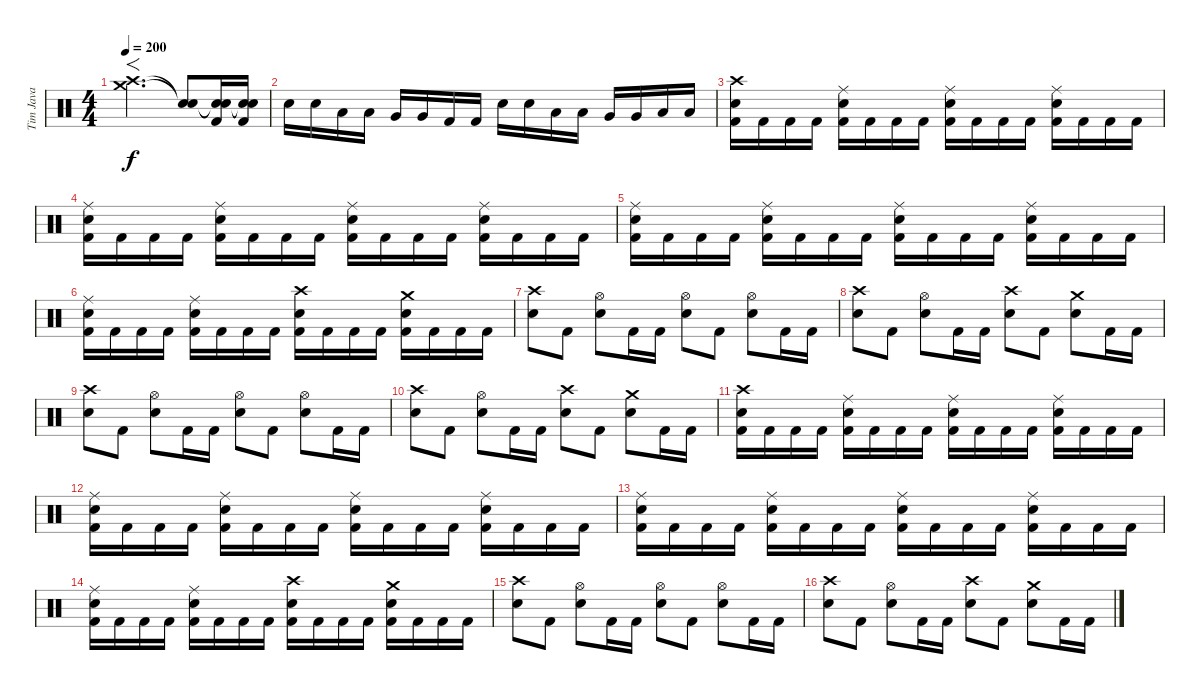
\track ("Tim Java" "Tim Java") {instrument percussion}
\staff {score}
\articulation defaults
\ts (4 4)
\tempo 200
\clef neutral
\ks c
("Crash high (hit)" "Crash medium (hit)").2{f d dy f} ("Snare (hit)"{t} "Snare (hit)"{t}).8 ("Snare (hit)"{t} "Snare (hit)"{t} "Kick (hit) 2").16 ("Snare (hit)"{t} "Snare (hit)"{t} "Kick (hit) 2").16 |
"Electric Snare (hit)".16 "Electric Snare (hit)".16 "Low Tom (hit)".16 "Low Tom (hit)".16 "Very Low Tom (hit)".16 "Very Low Tom (hit)".16 "Kick (hit) 2".16 "Kick (hit) 2".16 "Electric Snare (hit)".16 "Electric Snare (hit)".16 "Low Tom (hit)".16 "Low Tom (hit)".16 "Very Low Tom (hit)".16 "Very Low Tom (hit)".16 "Low Floor Tom (hit)".16 "Low Floor Tom (hit)".16 |
("Crash high (hit)" "Electric Snare (hit)" "Kick (hit) 2").16 "Kick (hit) 2".16 "Kick (hit) 2".16 "Kick (hit) 2".16 ("Ride (middle)" "Electric Snare (hit)" "Kick (hit) 2").16 "Kick (hit) 2".16 "Kick (hit) 2".16 "Kick (hit) 2".16 ("Ride (middle)" "Electric Snare (hit)" "Kick (hit) 2").16 "Kick (hit) 2".16 "Kick (hit) 2".16 "Kick (hit) 2".16 ("Ride (middle)" "Electric Snare (hit)" "Kick (hit) 2").16 "Kick (hit) 2".16 "Kick (hit) 2".16 "Kick (hit) 2".16 |
("Ride (middle)" "Electric Snare (hit)" "Kick (hit) 2").16 "Kick (hit) 2".16 "Kick (hit) 2".16 "Kick (hit) 2".16 ("Ride (middle)" "Electric Snare (hit)" "Kick (hit) 2").16 "Kick (hit) 2".16 "Kick (hit) 2".16 "Kick (hit) 2".16 ("Ride (middle)" "Electric Snare (hit)" "Kick (hit) 2").16 "Kick (hit) 2".16 "Kick (hit) 2".16 "Kick (hit) 2".16 ("Ride (middle)" "Electric Snare (hit)" "Kick (hit) 2").16 "Kick (hit) 2".16 "Kick (hit) 2".16 "Kick (hit) 2".16 |
("Ride (middle)" "Electric Snare (hit)" "Kick (hit) 2").16 "Kick (hit) 2".16 "Kick (hit) 2".16 "Kick (hit) 2".16 ("Ride (middle)" "Electric Snare (hit)" "Kick (hit) 2").16 "Kick (hit) 2".16 "Kick (hit) 2".16 "Kick (hit) 2".16 ("Ride (middle)" "Electric Snare (hit)" "Kick (hit) 2").16 "Kick (hit) 2".16 "Kick (hit) 2".16 "Kick (hit) 2".16 ("Ride (middle)" "Electric Snare (hit)" "Kick (hit) 2").16 "Kick (hit) 2".16 "Kick (hit) 2".16 "Kick (hit) 2".16 |
("Ride (middle)" "Electric Snare (hit)" "Kick (hit) 2").16 "Kick (hit) 2".16 "Kick (hit) 2".16 "Kick (hit) 2".16 ("Ride (middle)" "Electric Snare (hit)" "Kick (hit) 2").16 "Kick (hit) 2".16 "Kick (hit) 2".16 "Kick (hit) 2".16 ("Crash high (hit)" "Electric Snare (hit)" "Kick (hit) 2").16 "Kick (hit) 2".16 "Kick (hit) 2".16 "Kick (hit) 2".16 ("Crash medium (hit)" "Electric Snare (hit)" "Kick (hit) 2").16 "Kick (hit) 2".16 "Kick (hit) 2".16 "Kick (hit) 2".16 |
("Crash high (hit)" "Electric Snare (hit)").8 "Kick (hit) 2".8 ("Hi-Hat (open)" "Electric Snare (hit)").8 "Kick (hit) 2".16 "Kick (hit) 2".16 ("Hi-Hat (open)" "Electric Snare (hit)").8 "Kick (hit) 2".8 ("Hi-Hat (open)" "Electric Snare (hit)").8 "Kick (hit) 2".16 "Kick (hit) 2".16 |
("Crash high (hit)" "Electric Snare (hit)").8 "Kick (hit) 2".8 ("Hi-Hat (open)" "Electric Snare (hit)").8 "Kick (hit) 2".16 "Kick (hit) 2".16 ("Crash high (hit)" "Electric Snare (hit)").8 "Kick (hit) 2".8 ("Crash medium (hit)" "Electric Snare (hit)").8 "Kick (hit) 2".16 "Kick (hit) 2".16 |
("Crash high (hit)" "Electric Snare (hit)").8 "Kick (hit) 2".8 ("Hi-Hat (open)" "Electric Snare (hit)").8 "Kick (hit) 2".16 "Kick (hit) 2".16 ("Hi-Hat (open)" "Electric Snare (hit)").8 "Kick (hit) 2".8 ("Hi-Hat (open)" "Electric Snare (hit)").8 "Kick (hit) 2".16 "Kick (hit) 2".16 |
("Crash high (hit)" "Electric Snare (hit)").8 "Kick (hit) 2".8 ("Hi-Hat (open)" "Electric Snare (hit)").8 "Kick (hit) 2".16 "Kick (hit) 2".16 ("Crash high (hit)" "Electric Snare (hit)").8 "Kick (hit) 2".8 ("Crash medium (hit)" "Electric Snare (hit)").8 "Kick (hit) 2".16 "Kick (hit) 2".16 |
("Crash high (hit)" "Electric Snare (hit)" "Kick (hit) 2").16 "Kick (hit) 2".16 "Kick (hit) 2".16 "Kick (hit) 2".16 ("Ride (middle)" "Electric Snare (hit)" "Kick (hit) 2").16 "Kick (hit) 2".16 "Kick (hit) 2".16 "Kick (hit) 2".16 ("Ride (middle)" "Electric Snare (hit)" "Kick (hit) 2").16 "Kick (hit) 2".16 "Kick (hit) 2".16 "Kick (hit) 2".16 ("Ride (middle)" "Electric Snare (hit)" "Kick (hit) 2").16 "Kick (hit) 2".16 "Kick (hit) 2".16 "Kick (hit) 2".16 |
("Ride (middle)" "Electric Snare (hit)" "Kick (hit) 2").16 "Kick (hit) 2".16 "Kick (hit) 2".16 "Kick (hit) 2".16 ("Ride (middle)" "Electric Snare (hit)" "Kick (hit) 2").16 "Kick (hit) 2".16 "Kick (hit) 2".16 "Kick (hit) 2".16 ("Ride (middle)" "Electric Snare (hit)" "Kick (hit) 2").16 "Kick (hit) 2".16 "Kick (hit) 2".16 "Kick (hit) 2".16 ("Ride (middle)" "Electric Snare (hit)" "Kick (hit) 2").16 "Kick (hit) 2".16 "Kick (hit) 2".16 "Kick (hit) 2".16 |
("Ride (middle)" "Electric Snare (hit)" "Kick (hit) 2").16 "Kick (hit) 2".16 "Kick (hit) 2".16 "Kick (hit) 2".16 ("Ride (middle)" "Electric Snare (hit)" "Kick (hit) 2").16 "Kick (hit) 2".16 "Kick (hit) 2".16 "Kick (hit) 2".16 ("Ride (middle)" "Electric Snare (hit)" "Kick (hit) 2").16 "Kick (hit) 2".16 "Kick (hit) 2".16 "Kick (hit) 2".16 ("Ride (middle)" "Electric Snare (hit)" "Kick (hit) 2").16 "Kick (hit) 2".16 "Kick (hit) 2".16 "Kick (hit) 2".16 |
("Ride (middle)" "Electric Snare (hit)" "Kick (hit) 2").16 "Kick (hit) 2".16 "Kick (hit) 2".16 "Kick (hit) 2".16 ("Ride (middle)" "Electric Snare (hit)" "Kick (hit) 2").16 "Kick (hit) 2".16 "Kick (hit) 2".16 "Kick (hit) 2".16 ("Crash high (hit)" "Electric Snare (hit)" "Kick (hit) 2").16 "Kick (hit) 2".16 "Kick (hit) 2".16 "Kick (hit) 2".16 ("Crash medium (hit)" "Electric Snare (hit)" "Kick (hit) 2").16 "Kick (hit) 2".16 "Kick (hit) 2".16 "Kick (hit) 2".16 |
("Crash high (hit)" "Electric Snare (hit)").8 "Kick (hit) 2".8 ("Hi-Hat (open)" "Electric Snare (hit)").8 "Kick (hit) 2".16 "Kick (hit) 2".16 ("Hi-Hat (open)" "Electric Snare (hit)").8 "Kick (hit) 2".8 ("Hi-Hat (open)" "Electric Snare (hit)").8 "Kick (hit) 2".16 "Kick (hit) 2".16 |
("Crash high (hit)" "Electric Snare (hit)").8 "Kick (hit) 2".8 ("Hi-Hat (open)" "Electric Snare (hit)").8 "Kick (hit) 2".16 "Kick (hit) 2".16 ("Crash high (hit)" "Electric Snare (hit)").8 "Kick (hit) 2".8 ("Crash medium (hit)" "Electric Snare (hit)").8 "Kick (hit) 2".16 "Kick (hit) 2".16
